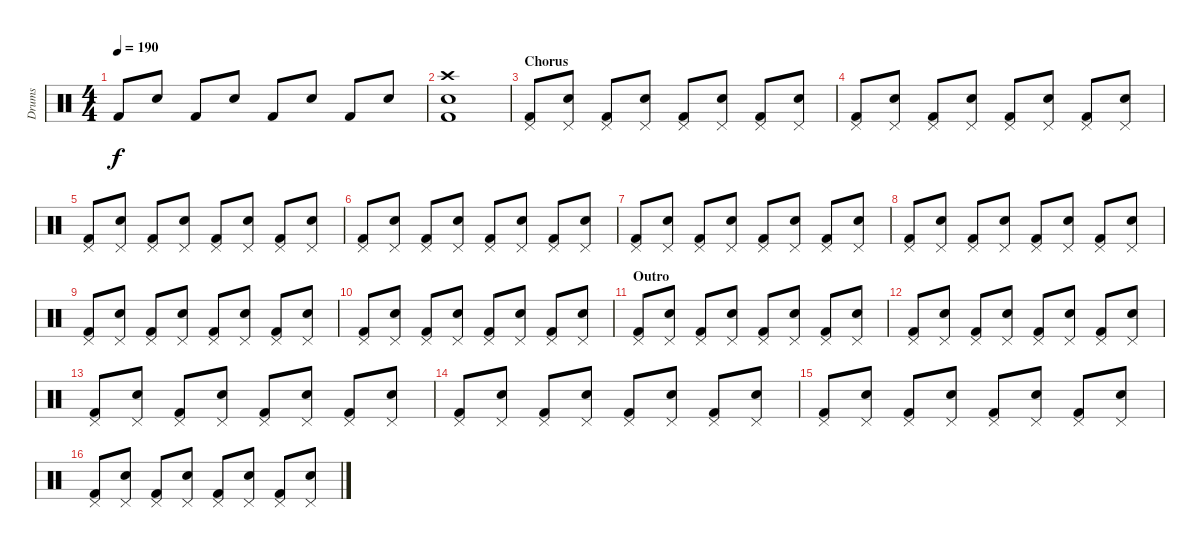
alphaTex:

\track ("Drums" "Drums") {instrument percussion}
\staff {score}
\articulation defaults
\ts (4 4)
\tempo 190
\clef neutral
\ks c "Kick (hit) 2".8{dy f} "Snare (hit) 2".8 "Kick (hit) 2".8 "Snare (hit) 2".8 "Kick (hit) 2".8 "Snare (hit) 2".8 "Kick (hit) 2".8 "Snare (hit) 2".8
|
("Crash high (hit)" "Snare (hit) 2" "Kick (hit) 2").1 |
\section ("" "Chorus")
("Pedal Hi-Hat (hit)" "Kick (hit) 2").8 ("Pedal Hi-Hat (hit)" "Snare (hit) 2").8 ("Pedal Hi-Hat (hit)" "Kick (hit) 2").8 ("Pedal Hi-Hat (hit)" "Snare (hit) 2").8 ("Pedal Hi-Hat (hit)" "Kick (hit) 2").8 ("Pedal Hi-Hat (hit)" "Snare (hit) 2").8 ("Pedal Hi-Hat (hit)" "Kick (hit) 2").8 ("Pedal Hi-Hat (hit)" "Snare (hit) 2").8 |
("Pedal Hi-Hat (hit)" "Kick (hit) 2").8 ("Pedal Hi-Hat (hit)" "Snare (hit) 2").8 ("Pedal Hi-Hat (hit)" "Kick (hit) 2").8 ("Pedal Hi-Hat (hit)" "Snare (hit) 2").8 ("Pedal Hi-Hat (hit)" "Kick (hit) 2").8 ("Pedal Hi-Hat (hit)" "Snare (hit) 2").8 ("Pedal Hi-Hat (hit)" "Kick (hit) 2").8 ("Pedal Hi-Hat (hit)" "Snare (hit) 2").8 |
("Pedal Hi-Hat (hit)" "Kick (hit) 2").8 ("Pedal Hi-Hat (hit)" "Snare (hit) 2").8 ("Pedal Hi-Hat (hit)" "Kick (hit) 2").8 ("Pedal Hi-Hat (hit)" "Snare (hit) 2").8 ("Pedal Hi-Hat (hit)" "Kick (hit) 2").8 ("Pedal Hi-Hat (hit)" "Snare (hit) 2").8 ("Pedal Hi-Hat (hit)" "Kick (hit) 2").8 ("Pedal Hi-Hat (hit)" "Snare (hit) 2").8 |
("Pedal Hi-Hat (hit)" "Kick (hit) 2").8 ("Pedal Hi-Hat (hit)" "Snare (hit) 2").8 ("Pedal Hi-Hat (hit)" "Kick (hit) 2").8 ("Pedal Hi-Hat (hit)" "Snare (hit) 2").8 ("Pedal Hi-Hat (hit)" "Kick (hit) 2").8 ("Pedal Hi-Hat (hit)" "Snare (hit) 2").8 ("Pedal Hi-Hat (hit)" "Kick (hit) 2").8 ("Pedal Hi-Hat (hit)" "Snare (hit) 2").8 |
("Pedal Hi-Hat (hit)" "Kick (hit) 2").8 ("Pedal Hi-Hat (hit)" "Snare (hit) 2").8 ("Pedal Hi-Hat (hit)" "Kick (hit) 2").8 ("Pedal Hi-Hat (hit)" "Snare (hit) 2").8 ("Pedal Hi-Hat (hit)" "Kick (hit) 2").8 ("Pedal Hi-Hat (hit)" "Snare (hit) 2").8 ("Pedal Hi-Hat (hit)" "Kick (hit) 2").8 ("Pedal Hi-Hat (hit)" "Snare (hit) 2").8 |
("Pedal Hi-Hat (hit)" "Kick (hit) 2").8 ("Pedal Hi-Hat (hit)" "Snare (hit) 2").8 ("Pedal Hi-Hat (hit)" "Kick (hit) 2").8 ("Pedal Hi-Hat (hit)" "Snare (hit) 2").8 ("Pedal Hi-Hat (hit)" "Kick (hit) 2").8 ("Pedal Hi-Hat (hit)" "Snare (hit) 2").8 ("Pedal Hi-Hat (hit)" "Kick (hit) 2").8 ("Pedal Hi-Hat (hit)" "Snare (hit) 2").8 |
("Pedal Hi-Hat (hit)" "Kick (hit) 2").8 ("Pedal Hi-Hat (hit)" "Snare (hit) 2").8 ("Pedal Hi-Hat (hit)" "Kick (hit) 2").8 ("Pedal Hi-Hat (hit)" "Snare (hit) 2").8 ("Pedal Hi-Hat (hit)" "Kick (hit) 2").8 ("Pedal Hi-Hat (hit)" "Snare (hit) 2").8 ("Pedal Hi-Hat (hit)" "Kick (hit) 2").8 ("Pedal Hi-Hat (hit)" "Snare (hit) 2").8 |
("Pedal Hi-Hat (hit)" "Kick (hit) 2").8 ("Pedal Hi-Hat (hit)" "Snare (hit) 2").8 ("Pedal Hi-Hat (hit)" "Kick (hit) 2").8 ("Pedal Hi-Hat (hit)" "Snare (hit) 2").8 ("Pedal Hi-Hat (hit)" "Kick (hit) 2").8 ("Pedal Hi-Hat (hit)" "Snare (hit) 2").8 ("Pedal Hi-Hat (hit)" "Kick (hit) 2").8 ("Pedal Hi-Hat (hit)" "Snare (hit) 2").8 |
\section ("" "Outro")
("Pedal Hi-Hat (hit)" "Kick (hit) 2").8 ("Pedal Hi-Hat (hit)" "Snare (hit) 2").8 ("Pedal Hi-Hat (hit)" "Kick (hit) 2").8 ("Pedal Hi-Hat (hit)" "Snare (hit) 2").8 ("Pedal Hi-Hat (hit)" "Kick (hit) 2").8 ("Pedal Hi-Hat (hit)" "Snare (hit) 2").8 ("Pedal Hi-Hat (hit)" "Kick (hit) 2").8 ("Pedal Hi-Hat (hit)" "Snare (hit) 2").8 |
("Pedal Hi-Hat (hit)" "Kick (hit) 2").8 ("Pedal Hi-Hat (hit)" "Snare (hit) 2").8 ("Pedal Hi-Hat (hit)" "Kick (hit) 2").8 ("Pedal Hi-Hat (hit)" "Snare (hit) 2").8 ("Pedal Hi-Hat (hit)" "Kick (hit) 2").8 ("Pedal Hi-Hat (hit)" "Snare (hit) 2").8 ("Pedal Hi-Hat (hit)" "Kick (hit) 2").8 ("Pedal Hi-Hat (hit)" "Snare (hit) 2").8 |
("Pedal Hi-Hat (hit)" "Kick (hit) 2").8 ("Pedal Hi-Hat (hit)" "Snare (hit) 2").8 ("Pedal Hi-Hat (hit)" "Kick (hit) 2").8 ("Pedal Hi-Hat (hit)" "Snare (hit) 2").8 ("Pedal Hi-Hat (hit)" "Kick (hit) 2").8 ("Pedal Hi-Hat (hit)" "Snare (hit) 2").8 ("Pedal Hi-Hat (hit)" "Kick (hit) 2").8 ("Pedal Hi-Hat (hit)" "Snare (hit) 2").8 |
("Pedal Hi-Hat (hit)" "Kick (hit) 2").8 ("Pedal Hi-Hat (hit)" "Snare (hit) 2").8 ("Pedal Hi-Hat (hit)" "Kick (hit) 2").8 ("Pedal Hi-Hat (hit)" "Snare (hit) 2").8 ("Pedal Hi-Hat (hit)" "Kick (hit) 2").8 ("Pedal Hi-Hat (hit)" "Snare (hit) 2").8 ("Pedal Hi-Hat (hit)" "Kick (hit) 2").8 ("Pedal Hi-Hat (hit)" "Snare (hit) 2").8 |
("Pedal Hi-Hat (hit)" "Kick (hit) 2").8 ("Pedal Hi-Hat (hit)" "Snare (hit) 2").8 ("Pedal Hi-Hat (hit)" "Kick (hit) 2").8 ("Pedal Hi-Hat (hit)" "Snare (hit) 2").8 ("Pedal Hi-Hat (hit)" "Kick (hit) 2").8 ("Pedal Hi-Hat (hit)" "Snare (hit) 2").8 ("Pedal Hi-Hat (hit)" "Kick (hit) 2").8 ("Pedal Hi-Hat (hit)" "Snare (hit) 2").8 |
("Pedal Hi-Hat (hit)" "Kick (hit) 2").8 ("Pedal Hi-Hat (hit)" "Snare (hit) 2").8 ("Pedal Hi-Hat (hit)" "Kick (hit) 2").8 ("Pedal Hi-Hat (hit)" "Snare (hit) 2").8 ("Pedal Hi-Hat (hit)" "Kick (hit) 2").8 ("Pedal Hi-Hat (hit)" "Snare (hit) 2").8 ("Pedal Hi-Hat (hit)" "Kick (hit) 2").8 ("Pedal Hi-Hat (hit)" "Snare (hit) 2").8
